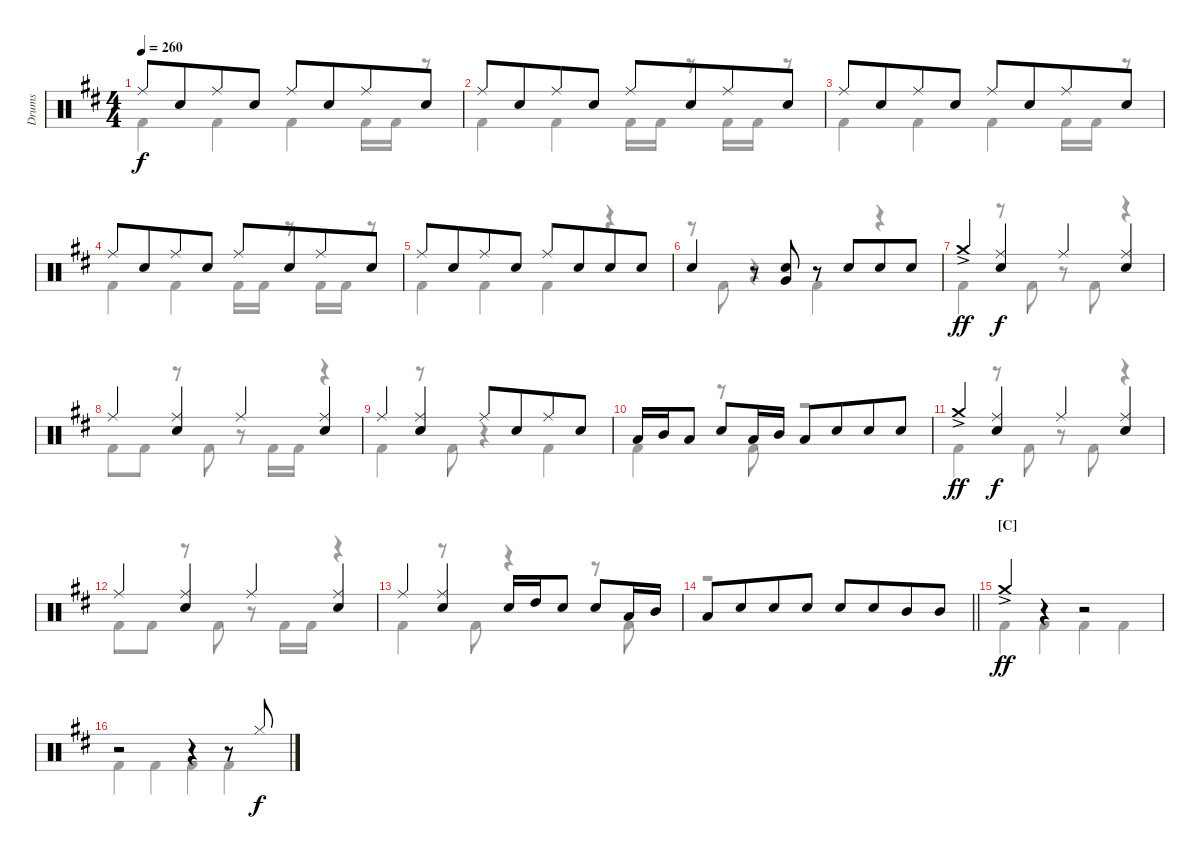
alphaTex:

\track ("Drums" "Drums") {instrument percussion}
\staff {score}
\articulation defaults
\voice
\ts (4 4)
\tempo 260
\clef neutral
\ks bminor "Ride (middle)".8{dy f} "Snare (hit) 2".8{beam merge} "Ride (middle)".8 "Snare (hit) 2".8 "Ride (middle)".8 "Snare (hit) 2".8{beam merge} "Ride (middle)".8 "Snare (hit) 2".8
|
"Ride (middle)".8 "Snare (hit) 2".8{beam merge} "Ride (middle)".8 "Snare (hit) 2".8 "Ride (middle)".8 "Snare (hit) 2".8{beam merge} "Ride (middle)".8 "Snare (hit) 2".8 |
"Ride (middle)".8 "Snare (hit) 2".8{beam merge} "Ride (middle)".8 "Snare (hit) 2".8 "Ride (middle)".8 "Snare (hit) 2".8{beam merge} "Ride (middle)".8 "Snare (hit) 2".8 |
"Ride (middle)".8 "Snare (hit) 2".8{beam merge} "Ride (middle)".8 "Snare (hit) 2".8 "Ride (middle)".8 "Snare (hit) 2".8{beam merge} "Ride (middle)".8 "Snare (hit) 2".8 |
"Ride (middle)".8 "Snare (hit) 2".8{beam merge} "Ride (middle)".8 "Snare (hit) 2".8 "Ride (middle)".8 "Snare (hit) 2".8{beam merge} "Snare (hit) 2".8 "Snare (hit) 2".8 |
"Snare (hit) 2".4 r.8 ("Snare (hit) 2" "Very Low Tom (hit)").8 r.8 "Snare (hit) 2".8{beam merge} "Snare (hit) 2".8 "Snare (hit) 2".8 |
"Crash medium (hit)"{ac}.4{dy ff} ("Ride (middle)" "Snare (hit) 2").4{dy f} "Ride (middle)".4 ("Ride (middle)" "Snare (hit) 2").4 |
"Ride (middle)".4 ("Ride (middle)" "Snare (hit) 2").4 "Ride (middle)".4 ("Ride (middle)" "Snare (hit) 2").4 |
"Ride (middle)".4 ("Ride (middle)" "Snare (hit) 2").4 "Ride (middle)".8 "Snare (hit) 2".8{beam merge} "Ride (middle)".8 "Snare (hit) 2".8 |
"Low Tom (hit)".16 "Mid Tom (hit)".16 "Low Tom (hit)".8 "Snare (hit) 2".8 "Low Tom (hit)".16 "Mid Tom (hit)".16 "Low Tom (hit)".8 "Snare (hit) 2".8{beam merge} "Snare (hit) 2".8 "Snare (hit) 2".8 |
"Crash medium (hit)"{ac}.4{dy ff} ("Ride (middle)" "Snare (hit) 2").4{dy f} "Ride (middle)".4 ("Ride (middle)" "Snare (hit) 2").4 |
"Ride (middle)".4 ("Ride (middle)" "Snare (hit) 2").4 "Ride (middle)".4 ("Ride (middle)" "Snare (hit) 2").4 |
"Ride (middle)".4 ("Ride (middle)" "Snare (hit) 2").4 "Snare (hit) 2".16 "High Tom (hit)".16 "Snare (hit) 2".8 "Snare (hit) 2".8 "Low Tom (hit)".16 "Mid Tom (hit)".16 |
\barLineRight lightlight "Low Tom (hit)".8 "Snare (hit) 2".8{beam merge} "Snare (hit) 2".8 "Snare (hit) 2".8 "Snare (hit) 2".8 "Snare (hit) 2".8{beam merge} "Mid Tom (hit)".8 "Mid Tom (hit)".8
|
\section ("" "[C]")
"Crash medium (hit)"{ac}.4{dy ff} r.4 r.2 |
r.2 r.4 r.8 "Hi-Hat (closed)".8{dy f}
\voice
\clef neutral
\ottava regular
\simile none
\ks bminor "Kick (hit) 2".4{dy f} "Kick (hit) 2".4 "Kick (hit) 2".4 "Kick (hit) 2".16 "Kick (hit) 2".16
r.8 |
"Kick (hit) 2".4 "Kick (hit) 2".4 "Kick (hit) 2".16 "Kick (hit) 2".16 r.8 "Kick (hit) 2".16 "Kick (hit) 2".16 r.8 |
"Kick (hit) 2".4 "Kick (hit) 2".4 "Kick (hit) 2".4 "Kick (hit) 2".16 "Kick (hit) 2".16 r.8 |
"Kick (hit) 2".4 "Kick (hit) 2".4 "Kick (hit) 2".16 "Kick (hit) 2".16 r.8 "Kick (hit) 2".16 "Kick (hit) 2".16 r.8 |
"Kick (hit) 2".4 "Kick (hit) 2".4 "Kick (hit) 2".4 r.4 |
r.8 "Kick (hit) 2".8 r.4 "Kick (hit) 2".4 r.4 |
"Kick (hit) 2".4 r.8 "Kick (hit) 2".8 r.8 "Kick (hit) 2".8 r.4 |
"Kick (hit) 2".8 "Kick (hit) 2".8 r.8 "Kick (hit) 2".8 r.8 "Kick (hit) 2".16 "Kick (hit) 2".16 r.4 |
"Kick (hit) 2".4 r.8 "Kick (hit) 2".8 r.4 "Kick (hit) 2".4 |
"Kick (hit) 2".4 r.8 "Kick (hit) 2".8 r.2 |
"Kick (hit) 2".4 r.8 "Kick (hit) 2".8 r.8 "Kick (hit) 2".8 r.4 |
"Kick (hit) 2".8 "Kick (hit) 2".8 r.8 "Kick (hit) 2".8 r.8 "Kick (hit) 2".16 "Kick (hit) 2".16 r.4 |
"Kick (hit) 2".4 r.8 "Kick (hit) 2".8 r.4 r.8 "Kick (hit) 2".8 |
\barLineRight lightlight
r.1 |
"Kick (hit) 2".4 "Kick (hit) 2".4 "Kick (hit) 2".4 "Kick (hit) 2".4 |
"Kick (hit) 2".4 "Kick (hit) 2".4 "Kick (hit) 2".4 "Kick (hit) 2".4
